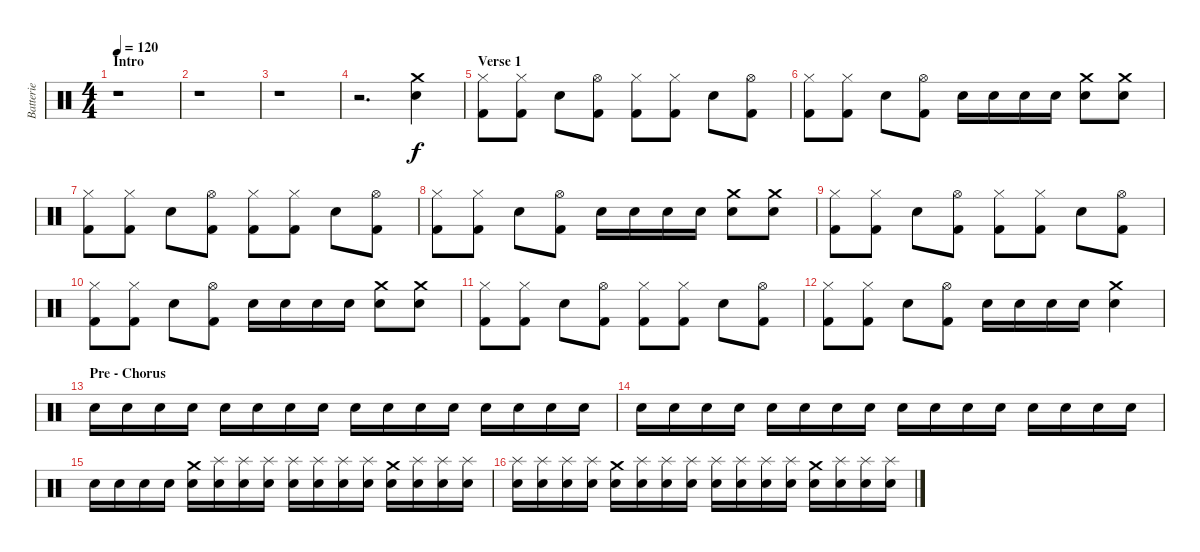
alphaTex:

\track ("Batterie" "Batterie") {instrument percussion}
\staff {score}
\articulation defaults
\ts (4 4)
\section ("" "Intro")
\tempo 120
\clef neutral
\ks c
r.1{dy f} |
r.1 |
r.1 |
r.2{d} ("Crash medium (hit)" "Snare (hit) 2").4 |
\section ("" "Verse 1")
("Hi-Hat (closed)" "Kick (hit) 2").8 ("Hi-Hat (closed)" "Kick (hit) 2").8 "Snare (hit) 2".8 ("Hi-Hat (open)" "Kick (hit) 2").8 ("Hi-Hat (closed)" "Kick (hit) 2").8 ("Hi-Hat (closed)" "Kick (hit) 2").8 "Snare (hit) 2".8 ("Hi-Hat (open)" "Kick (hit) 2").8 |
("Hi-Hat (closed)" "Kick (hit) 2").8 ("Hi-Hat (closed)" "Kick (hit) 2").8 "Snare (hit) 2".8 ("Hi-Hat (open)" "Kick (hit) 2").8 "Snare (hit) 2".16 "Snare (hit) 2".16 "Snare (hit) 2".16 "Snare (hit) 2".16 ("Crash medium (hit)" "Snare (hit) 2").8 ("Crash medium (hit)" "Snare (hit) 2").8 |
("Hi-Hat (closed)" "Kick (hit) 2").8 ("Hi-Hat (closed)" "Kick (hit) 2").8 "Snare (hit) 2".8 ("Hi-Hat (open)" "Kick (hit) 2").8 ("Hi-Hat (closed)" "Kick (hit) 2").8 ("Hi-Hat (closed)" "Kick (hit) 2").8 "Snare (hit) 2".8 ("Hi-Hat (open)" "Kick (hit) 2").8 |
("Hi-Hat (closed)" "Kick (hit) 2").8 ("Hi-Hat (closed)" "Kick (hit) 2").8 "Snare (hit) 2".8 ("Hi-Hat (open)" "Kick (hit) 2").8 "Snare (hit) 2".16 "Snare (hit) 2".16 "Snare (hit) 2".16 "Snare (hit) 2".16 ("Crash medium (hit)" "Snare (hit) 2").8 ("Crash medium (hit)" "Snare (hit) 2").8 |
("Hi-Hat (closed)" "Kick (hit) 2").8 ("Hi-Hat (closed)" "Kick (hit) 2").8 "Snare (hit) 2".8 ("Hi-Hat (open)" "Kick (hit) 2").8 ("Hi-Hat (closed)" "Kick (hit) 2").8 ("Hi-Hat (closed)" "Kick (hit) 2").8 "Snare (hit) 2".8 ("Hi-Hat (open)" "Kick (hit) 2").8 |
("Hi-Hat (closed)" "Kick (hit) 2").8 ("Hi-Hat (closed)" "Kick (hit) 2").8 "Snare (hit) 2".8 ("Hi-Hat (open)" "Kick (hit) 2").8 "Snare (hit) 2".16 "Snare (hit) 2".16 "Snare (hit) 2".16 "Snare (hit) 2".16 ("Crash medium (hit)" "Snare (hit) 2").8 ("Crash medium (hit)" "Snare (hit) 2").8 |
("Hi-Hat (closed)" "Kick (hit) 2").8 ("Hi-Hat (closed)" "Kick (hit) 2").8 "Snare (hit) 2".8 ("Hi-Hat (open)" "Kick (hit) 2").8 ("Hi-Hat (closed)" "Kick (hit) 2").8 ("Hi-Hat (closed)" "Kick (hit) 2").8 "Snare (hit) 2".8 ("Hi-Hat (open)" "Kick (hit) 2").8 |
("Hi-Hat (closed)" "Kick (hit) 2").8 ("Hi-Hat (closed)" "Kick (hit) 2").8 "Snare (hit) 2".8 ("Hi-Hat (open)" "Kick (hit) 2").8 "Snare (hit) 2".16 "Snare (hit) 2".16 "Snare (hit) 2".16 "Snare (hit) 2".16 ("Crash medium (hit)" "Snare (hit) 2").4 |
\section ("" "Pre - Chorus")
"Snare (hit) 2".16{volume 8} "Snare (hit) 2".16{volume 13} "Snare (hit) 2".16 "Snare (hit) 2".16 "Snare (hit) 2".16 "Snare (hit) 2".16 "Snare (hit) 2".16 "Snare (hit) 2".16 "Snare (hit) 2".16 "Snare (hit) 2".16 "Snare (hit) 2".16 "Snare (hit) 2".16 "Snare (hit) 2".16{volume 8} "Snare (hit) 2".16{volume 13} "Snare (hit) 2".16 "Snare (hit) 2".16 |
"Snare (hit) 2".16 "Snare (hit) 2".16 "Snare (hit) 2".16 "Snare (hit) 2".16 "Snare (hit) 2".16 "Snare (hit) 2".16 "Snare (hit) 2".16 "Snare (hit) 2".16 "Snare (hit) 2".16{volume 8} "Snare (hit) 2".16{volume 13} "Snare (hit) 2".16 "Snare (hit) 2".16 "Snare (hit) 2".16 "Snare (hit) 2".16 "Snare (hit) 2".16 "Snare (hit) 2".16 |
"Snare (hit) 2".16 "Snare (hit) 2".16 "Snare (hit) 2".16 "Snare (hit) 2".16 ("Crash medium (hit)" "Snare (hit) 2").16{volume 16} ("Splash (hit)" "Snare (hit) 2").16 ("Splash (hit)" "Snare (hit) 2").16 ("Splash (hit)" "Snare (hit) 2").16 ("Splash (hit)" "Snare (hit) 2").16 ("Splash (hit)" "Snare (hit) 2").16 ("Splash (hit)" "Snare (hit) 2").16 ("Splash (hit)" "Snare (hit) 2").16 ("Crash medium (hit)" "Snare (hit) 2").16 ("Splash (hit)" "Snare (hit) 2").16 ("Splash (hit)" "Snare (hit) 2").16 ("Splash (hit)" "Snare (hit) 2").16 |
("Splash (hit)" "Snare (hit) 2").16 ("Splash (hit)" "Snare (hit) 2").16 ("Splash (hit)" "Snare (hit) 2").16 ("Splash (hit)" "Snare (hit) 2").16 ("Crash medium (hit)" "Snare (hit) 2").16 ("Splash (hit)" "Snare (hit) 2").16 ("Splash (hit)" "Snare (hit) 2").16 ("Splash (hit)" "Snare (hit) 2").16 ("Splash (hit)" "Snare (hit) 2").16 ("Splash (hit)" "Snare (hit) 2").16 ("Splash (hit)" "Snare (hit) 2").16 ("Splash (hit)" "Snare (hit) 2").16 ("Crash medium (hit)" "Snare (hit) 2").16 ("Splash (hit)" "Snare (hit) 2").16 ("Splash (hit)" "Snare (hit) 2").16 ("Splash (hit)" "Snare (hit) 2").16
